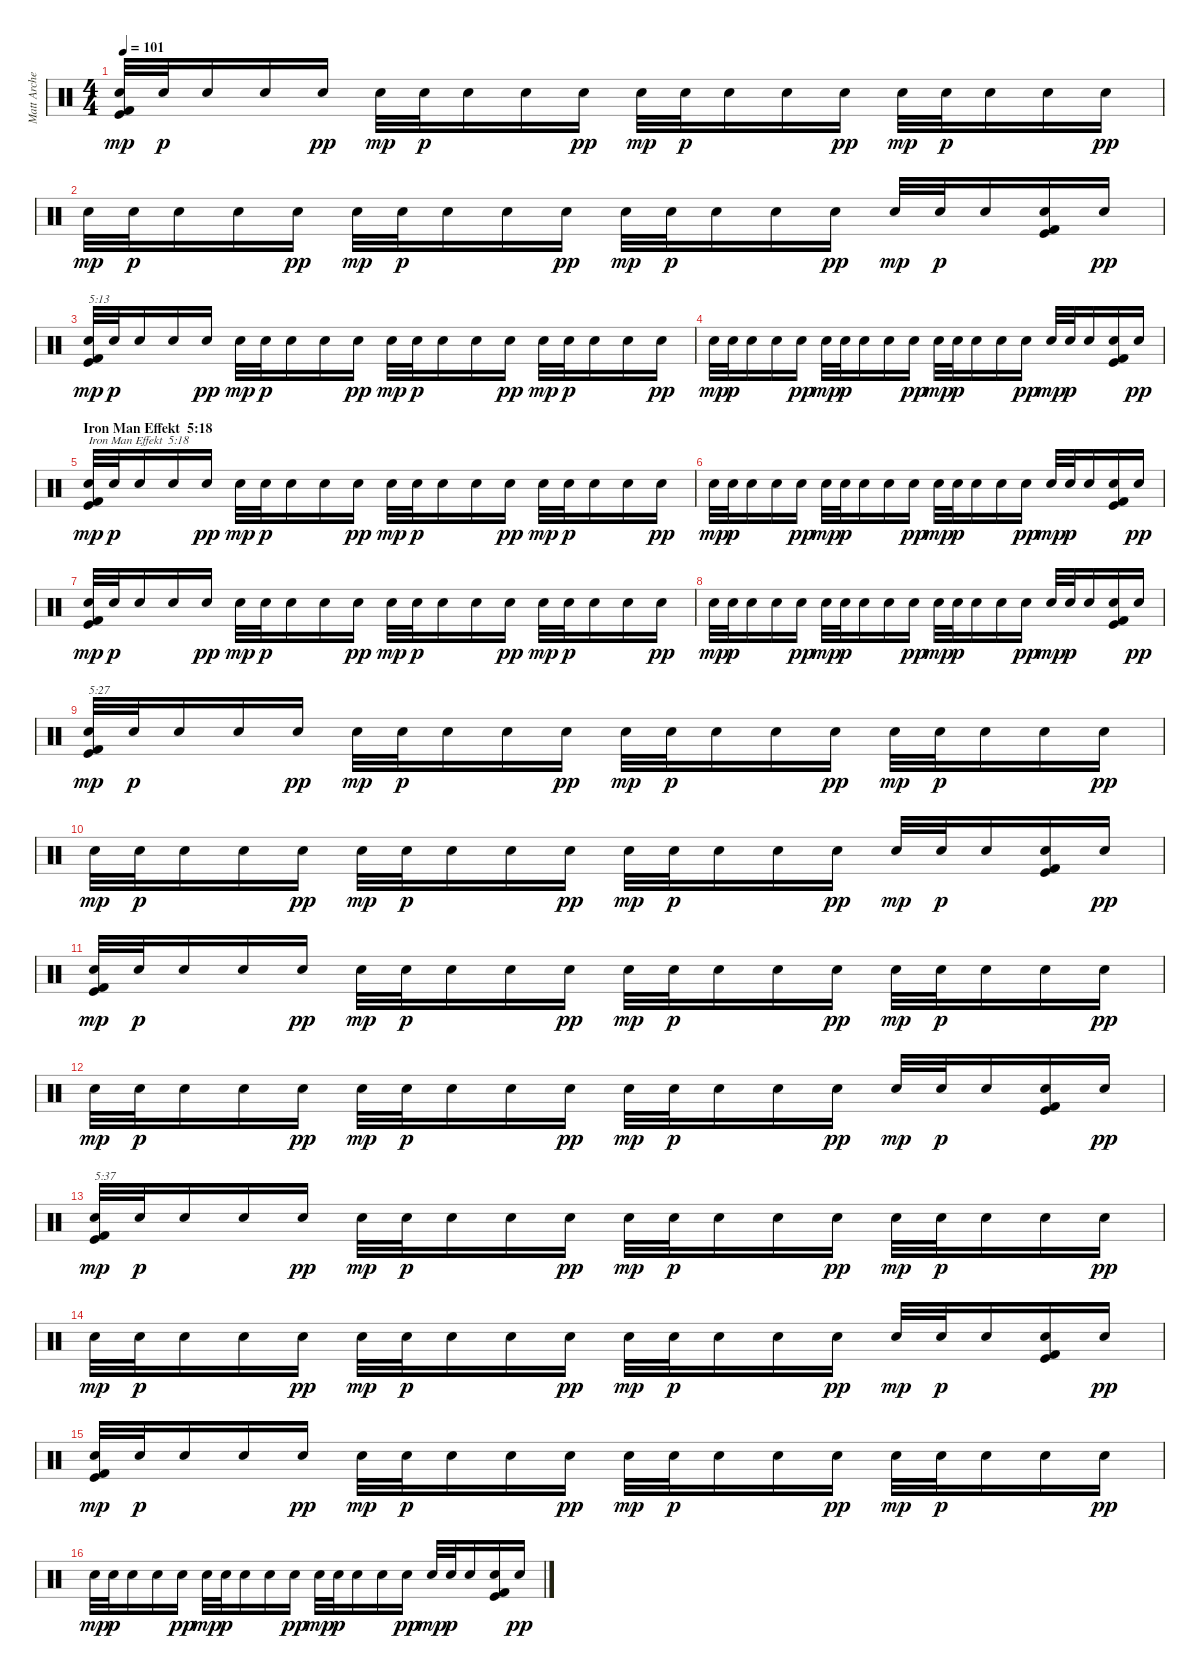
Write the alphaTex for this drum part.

\track ("Matt Archer" "Matt Arche") {instrument percussion}
\staff {score}
\articulation defaults
\ts (4 4)
\tempo 101
\clef neutral
\ks c
("Kick (hit)" "Kick (hit) 2" "Electric Snare (hit)").32{dy mp} "Electric Snare (hit)".32{dy p} "Electric Snare (hit)".16 "Electric Snare (hit)".16 "Electric Snare (hit)".16{dy pp} "Electric Snare (hit)".32{dy mp} "Electric Snare (hit)".32{dy p} "Electric Snare (hit)".16 "Electric Snare (hit)".16 "Electric Snare (hit)".16{dy pp} "Electric Snare (hit)".32{dy mp} "Electric Snare (hit)".32{dy p} "Electric Snare (hit)".16 "Electric Snare (hit)".16 "Electric Snare (hit)".16{dy pp} "Electric Snare (hit)".32{dy mp} "Electric Snare (hit)".32{dy p} "Electric Snare (hit)".16 "Electric Snare (hit)".16 "Electric Snare (hit)".16{dy pp} |
"Electric Snare (hit)".32{dy mp} "Electric Snare (hit)".32{dy p} "Electric Snare (hit)".16 "Electric Snare (hit)".16 "Electric Snare (hit)".16{dy pp} "Electric Snare (hit)".32{dy mp} "Electric Snare (hit)".32{dy p} "Electric Snare (hit)".16 "Electric Snare (hit)".16 "Electric Snare (hit)".16{dy pp} "Electric Snare (hit)".32{dy mp} "Electric Snare (hit)".32{dy p} "Electric Snare (hit)".16 "Electric Snare (hit)".16 "Electric Snare (hit)".16{dy pp} "Electric Snare (hit)".32{dy mp} "Electric Snare (hit)".32{dy p} "Electric Snare (hit)".16 ("Kick (hit)" "Kick (hit) 2" "Electric Snare (hit)").16 "Electric Snare (hit)".16{dy pp} |
("Kick (hit)" "Kick (hit) 2" "Electric Snare (hit)").32{txt "5:13" dy mp} "Electric Snare (hit)".32{dy p} "Electric Snare (hit)".16 "Electric Snare (hit)".16 "Electric Snare (hit)".16{dy pp} "Electric Snare (hit)".32{dy mp} "Electric Snare (hit)".32{dy p} "Electric Snare (hit)".16 "Electric Snare (hit)".16 "Electric Snare (hit)".16{dy pp} "Electric Snare (hit)".32{dy mp} "Electric Snare (hit)".32{dy p} "Electric Snare (hit)".16 "Electric Snare (hit)".16 "Electric Snare (hit)".16{dy pp} "Electric Snare (hit)".32{dy mp} "Electric Snare (hit)".32{dy p} "Electric Snare (hit)".16 "Electric Snare (hit)".16 "Electric Snare (hit)".16{dy pp} |
"Electric Snare (hit)".32{dy mp} "Electric Snare (hit)".32{dy p} "Electric Snare (hit)".16 "Electric Snare (hit)".16 "Electric Snare (hit)".16{dy pp} "Electric Snare (hit)".32{dy mp} "Electric Snare (hit)".32{dy p} "Electric Snare (hit)".16 "Electric Snare (hit)".16 "Electric Snare (hit)".16{dy pp} "Electric Snare (hit)".32{dy mp} "Electric Snare (hit)".32{dy p} "Electric Snare (hit)".16 "Electric Snare (hit)".16 "Electric Snare (hit)".16{dy pp} "Electric Snare (hit)".32{dy mp} "Electric Snare (hit)".32{dy p} "Electric Snare (hit)".16 ("Kick (hit)" "Kick (hit) 2" "Electric Snare (hit)").16 "Electric Snare (hit)".16{dy pp} |
\section ("" "Iron Man Effekt  5:18")
("Kick (hit)" "Kick (hit) 2" "Electric Snare (hit)").32{txt "Iron Man Effekt  5:18" dy mp} "Electric Snare (hit)".32{dy p} "Electric Snare (hit)".16 "Electric Snare (hit)".16 "Electric Snare (hit)".16{dy pp} "Electric Snare (hit)".32{dy mp} "Electric Snare (hit)".32{dy p} "Electric Snare (hit)".16 "Electric Snare (hit)".16 "Electric Snare (hit)".16{dy pp} "Electric Snare (hit)".32{dy mp} "Electric Snare (hit)".32{dy p} "Electric Snare (hit)".16 "Electric Snare (hit)".16 "Electric Snare (hit)".16{dy pp} "Electric Snare (hit)".32{dy mp} "Electric Snare (hit)".32{dy p} "Electric Snare (hit)".16 "Electric Snare (hit)".16 "Electric Snare (hit)".16{dy pp} |
"Electric Snare (hit)".32{dy mp} "Electric Snare (hit)".32{dy p} "Electric Snare (hit)".16 "Electric Snare (hit)".16 "Electric Snare (hit)".16{dy pp} "Electric Snare (hit)".32{dy mp} "Electric Snare (hit)".32{dy p} "Electric Snare (hit)".16 "Electric Snare (hit)".16 "Electric Snare (hit)".16{dy pp} "Electric Snare (hit)".32{dy mp} "Electric Snare (hit)".32{dy p} "Electric Snare (hit)".16 "Electric Snare (hit)".16 "Electric Snare (hit)".16{dy pp} "Electric Snare (hit)".32{dy mp} "Electric Snare (hit)".32{dy p} "Electric Snare (hit)".16 ("Kick (hit)" "Kick (hit) 2" "Electric Snare (hit)").16 "Electric Snare (hit)".16{dy pp} |
("Kick (hit)" "Kick (hit) 2" "Electric Snare (hit)").32{dy mp} "Electric Snare (hit)".32{dy p} "Electric Snare (hit)".16 "Electric Snare (hit)".16 "Electric Snare (hit)".16{dy pp} "Electric Snare (hit)".32{dy mp} "Electric Snare (hit)".32{dy p} "Electric Snare (hit)".16 "Electric Snare (hit)".16 "Electric Snare (hit)".16{dy pp} "Electric Snare (hit)".32{dy mp} "Electric Snare (hit)".32{dy p} "Electric Snare (hit)".16 "Electric Snare (hit)".16 "Electric Snare (hit)".16{dy pp} "Electric Snare (hit)".32{dy mp} "Electric Snare (hit)".32{dy p} "Electric Snare (hit)".16 "Electric Snare (hit)".16 "Electric Snare (hit)".16{dy pp} |
"Electric Snare (hit)".32{dy mp} "Electric Snare (hit)".32{dy p} "Electric Snare (hit)".16 "Electric Snare (hit)".16 "Electric Snare (hit)".16{dy pp} "Electric Snare (hit)".32{dy mp} "Electric Snare (hit)".32{dy p} "Electric Snare (hit)".16 "Electric Snare (hit)".16 "Electric Snare (hit)".16{dy pp} "Electric Snare (hit)".32{dy mp} "Electric Snare (hit)".32{dy p} "Electric Snare (hit)".16 "Electric Snare (hit)".16 "Electric Snare (hit)".16{dy pp} "Electric Snare (hit)".32{dy mp} "Electric Snare (hit)".32{dy p} "Electric Snare (hit)".16 ("Kick (hit)" "Kick (hit) 2" "Electric Snare (hit)").16 "Electric Snare (hit)".16{dy pp} |
("Kick (hit)" "Kick (hit) 2" "Electric Snare (hit)").32{txt "5:27" dy mp} "Electric Snare (hit)".32{dy p} "Electric Snare (hit)".16 "Electric Snare (hit)".16 "Electric Snare (hit)".16{dy pp} "Electric Snare (hit)".32{dy mp} "Electric Snare (hit)".32{dy p} "Electric Snare (hit)".16 "Electric Snare (hit)".16 "Electric Snare (hit)".16{dy pp} "Electric Snare (hit)".32{dy mp} "Electric Snare (hit)".32{dy p} "Electric Snare (hit)".16 "Electric Snare (hit)".16 "Electric Snare (hit)".16{dy pp} "Electric Snare (hit)".32{dy mp} "Electric Snare (hit)".32{dy p} "Electric Snare (hit)".16 "Electric Snare (hit)".16 "Electric Snare (hit)".16{dy pp} |
"Electric Snare (hit)".32{dy mp} "Electric Snare (hit)".32{dy p} "Electric Snare (hit)".16 "Electric Snare (hit)".16 "Electric Snare (hit)".16{dy pp} "Electric Snare (hit)".32{dy mp} "Electric Snare (hit)".32{dy p} "Electric Snare (hit)".16 "Electric Snare (hit)".16 "Electric Snare (hit)".16{dy pp} "Electric Snare (hit)".32{dy mp} "Electric Snare (hit)".32{dy p} "Electric Snare (hit)".16 "Electric Snare (hit)".16 "Electric Snare (hit)".16{dy pp} "Electric Snare (hit)".32{dy mp} "Electric Snare (hit)".32{dy p} "Electric Snare (hit)".16 ("Kick (hit)" "Kick (hit) 2" "Electric Snare (hit)").16 "Electric Snare (hit)".16{dy pp} |
("Kick (hit)" "Kick (hit) 2" "Electric Snare (hit)").32{dy mp} "Electric Snare (hit)".32{dy p} "Electric Snare (hit)".16 "Electric Snare (hit)".16 "Electric Snare (hit)".16{dy pp} "Electric Snare (hit)".32{dy mp} "Electric Snare (hit)".32{dy p} "Electric Snare (hit)".16 "Electric Snare (hit)".16 "Electric Snare (hit)".16{dy pp} "Electric Snare (hit)".32{dy mp} "Electric Snare (hit)".32{dy p} "Electric Snare (hit)".16 "Electric Snare (hit)".16 "Electric Snare (hit)".16{dy pp} "Electric Snare (hit)".32{dy mp} "Electric Snare (hit)".32{dy p} "Electric Snare (hit)".16 "Electric Snare (hit)".16 "Electric Snare (hit)".16{dy pp} |
"Electric Snare (hit)".32{dy mp} "Electric Snare (hit)".32{dy p} "Electric Snare (hit)".16 "Electric Snare (hit)".16 "Electric Snare (hit)".16{dy pp} "Electric Snare (hit)".32{dy mp} "Electric Snare (hit)".32{dy p} "Electric Snare (hit)".16 "Electric Snare (hit)".16 "Electric Snare (hit)".16{dy pp} "Electric Snare (hit)".32{dy mp} "Electric Snare (hit)".32{dy p} "Electric Snare (hit)".16 "Electric Snare (hit)".16 "Electric Snare (hit)".16{dy pp} "Electric Snare (hit)".32{dy mp} "Electric Snare (hit)".32{dy p} "Electric Snare (hit)".16 ("Kick (hit)" "Kick (hit) 2" "Electric Snare (hit)").16 "Electric Snare (hit)".16{dy pp} |
("Kick (hit)" "Kick (hit) 2" "Electric Snare (hit)").32{txt "5:37" dy mp} "Electric Snare (hit)".32{dy p} "Electric Snare (hit)".16 "Electric Snare (hit)".16 "Electric Snare (hit)".16{dy pp} "Electric Snare (hit)".32{dy mp} "Electric Snare (hit)".32{dy p} "Electric Snare (hit)".16 "Electric Snare (hit)".16 "Electric Snare (hit)".16{dy pp} "Electric Snare (hit)".32{dy mp} "Electric Snare (hit)".32{dy p} "Electric Snare (hit)".16 "Electric Snare (hit)".16 "Electric Snare (hit)".16{dy pp} "Electric Snare (hit)".32{dy mp} "Electric Snare (hit)".32{dy p} "Electric Snare (hit)".16 "Electric Snare (hit)".16 "Electric Snare (hit)".16{dy pp} |
"Electric Snare (hit)".32{dy mp} "Electric Snare (hit)".32{dy p} "Electric Snare (hit)".16 "Electric Snare (hit)".16 "Electric Snare (hit)".16{dy pp} "Electric Snare (hit)".32{dy mp} "Electric Snare (hit)".32{dy p} "Electric Snare (hit)".16 "Electric Snare (hit)".16 "Electric Snare (hit)".16{dy pp} "Electric Snare (hit)".32{dy mp} "Electric Snare (hit)".32{dy p} "Electric Snare (hit)".16 "Electric Snare (hit)".16 "Electric Snare (hit)".16{dy pp} "Electric Snare (hit)".32{dy mp} "Electric Snare (hit)".32{dy p} "Electric Snare (hit)".16 ("Kick (hit)" "Kick (hit) 2" "Electric Snare (hit)").16 "Electric Snare (hit)".16{dy pp} |
("Kick (hit)" "Kick (hit) 2" "Electric Snare (hit)").32{dy mp} "Electric Snare (hit)".32{dy p} "Electric Snare (hit)".16 "Electric Snare (hit)".16 "Electric Snare (hit)".16{dy pp} "Electric Snare (hit)".32{dy mp} "Electric Snare (hit)".32{dy p} "Electric Snare (hit)".16 "Electric Snare (hit)".16 "Electric Snare (hit)".16{dy pp} "Electric Snare (hit)".32{dy mp} "Electric Snare (hit)".32{dy p} "Electric Snare (hit)".16 "Electric Snare (hit)".16 "Electric Snare (hit)".16{dy pp} "Electric Snare (hit)".32{dy mp} "Electric Snare (hit)".32{dy p} "Electric Snare (hit)".16 "Electric Snare (hit)".16 "Electric Snare (hit)".16{dy pp} |
"Electric Snare (hit)".32{dy mp} "Electric Snare (hit)".32{dy p} "Electric Snare (hit)".16 "Electric Snare (hit)".16 "Electric Snare (hit)".16{dy pp} "Electric Snare (hit)".32{dy mp} "Electric Snare (hit)".32{dy p} "Electric Snare (hit)".16 "Electric Snare (hit)".16 "Electric Snare (hit)".16{dy pp} "Electric Snare (hit)".32{dy mp} "Electric Snare (hit)".32{dy p} "Electric Snare (hit)".16 "Electric Snare (hit)".16 "Electric Snare (hit)".16{dy pp} "Electric Snare (hit)".32{dy mp} "Electric Snare (hit)".32{dy p} "Electric Snare (hit)".16 ("Kick (hit)" "Kick (hit) 2" "Electric Snare (hit)").16 "Electric Snare (hit)".16{dy pp}
